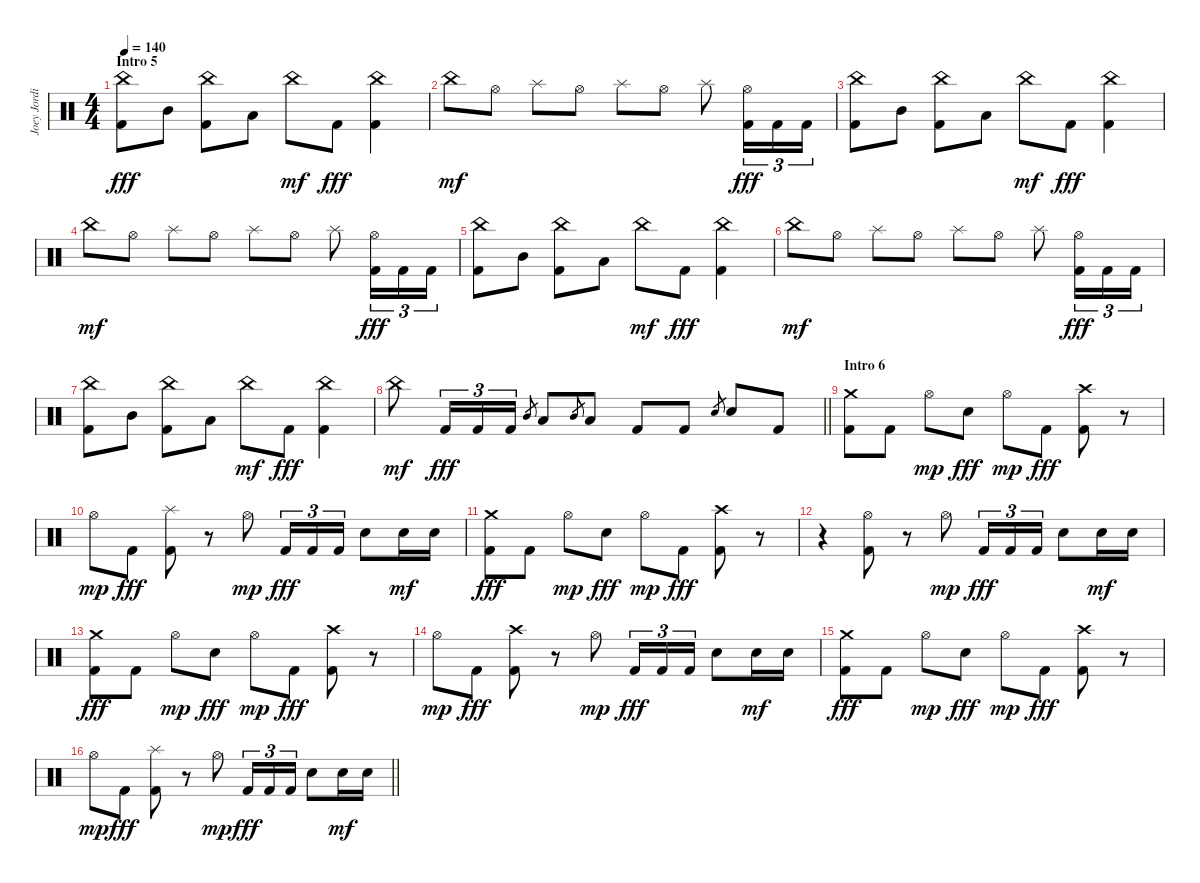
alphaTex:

\track ("Joey Jordison" "Joey Jordi") {instrument percussion}
\staff {score}
\articulation defaults
\ts (4 4)
\section ("" "Intro 5")
\tempo 140
\clef neutral
\ks c
("China (hit)" "Kick (hit) 2").8{dy fff} "Mid Tom (hit)".8 ("China (hit)" "Kick (hit) 2").8 "Low Tom (hit)".8 "China (hit)".8{dy mf} "Kick (hit) 2".8{dy fff} ("China (hit)" "Kick (hit) 2").4 |
"China (hit)".8{dy mf} "Hi-Hat (open)".8 "Splash (hit)".8 "Hi-Hat (open)".8 "Splash (hit)".8 "Hi-Hat (open)".8 "Splash (hit)".8 ("Hi-Hat (open)" "Kick (hit) 2").16{tu (3 2) dy fff} "Kick (hit) 2".16{tu (3 2)} "Kick (hit) 2".16{tu (3 2)} |
("China (hit)" "Kick (hit) 2").8 "Mid Tom (hit)".8 ("China (hit)" "Kick (hit) 2").8 "Low Tom (hit)".8 "China (hit)".8{dy mf} "Kick (hit) 2".8{dy fff} ("China (hit)" "Kick (hit) 2").4 |
"China (hit)".8{dy mf} "Hi-Hat (open)".8 "Splash (hit)".8 "Hi-Hat (open)".8 "Splash (hit)".8 "Hi-Hat (open)".8 "Splash (hit)".8 ("Hi-Hat (open)" "Kick (hit) 2").16{tu (3 2) dy fff} "Kick (hit) 2".16{tu (3 2)} "Kick (hit) 2".16{tu (3 2)} |
("China (hit)" "Kick (hit) 2").8 "Mid Tom (hit)".8 ("China (hit)" "Kick (hit) 2").8 "Low Tom (hit)".8 "China (hit)".8{dy mf} "Kick (hit) 2".8{dy fff} ("China (hit)" "Kick (hit) 2").4 |
"China (hit)".8{dy mf} "Hi-Hat (open)".8 "Splash (hit)".8 "Hi-Hat (open)".8 "Splash (hit)".8 "Hi-Hat (open)".8 "Splash (hit)".8 ("Hi-Hat (open)" "Kick (hit) 2").16{tu (3 2) dy fff} "Kick (hit) 2".16{tu (3 2)} "Kick (hit) 2".16{tu (3 2)} |
("China (hit)" "Kick (hit) 2").8 "Mid Tom (hit)".8 ("China (hit)" "Kick (hit) 2").8 "Low Tom (hit)".8 "China (hit)".8{dy mf} "Kick (hit) 2".8{dy fff} ("China (hit)" "Kick (hit) 2").4 |
\barLineRight lightlight "China (hit)".8{dy mf} "Kick (hit) 2".16{tu (3 2) dy fff} "Kick (hit) 2".16{tu (3 2)} "Kick (hit) 2".16{tu (3 2)} "Mid Tom (hit)".8{gr} "Low Tom (hit)".8 "Mid Tom (hit)".8{gr} "Low Tom (hit)".8 "Kick (hit) 2".8 "Kick (hit) 2".8 "Electric Snare (hit)".8{gr} "Electric Snare (hit)".8 "Kick (hit) 2".8
|
\section ("" "Intro 6")
("Crash medium (hit)" "Kick (hit) 2").8 "Kick (hit) 2".8 "Hi-Hat (open)".8{dy mp} "Electric Snare (hit)".8{dy fff} "Hi-Hat (open)".8{dy mp} "Kick (hit) 2".8{dy fff} ("Crash high (hit)" "Kick (hit) 2").8 r.8 |
"Hi-Hat (open)".8{dy mp} "Kick (hit) 2".8{dy fff} ("Splash (hit)" "Kick (hit) 2").8 r.8 "Hi-Hat (open)".8{dy mp} "Kick (hit) 2".16{tu (3 2) dy fff} "Kick (hit) 2".16{tu (3 2)} "Kick (hit) 2".16{tu (3 2)} "Electric Snare (hit)".8 "Electric Snare (hit)".16{dy mf} "Electric Snare (hit)".16 |
("Crash medium (hit)" "Kick (hit) 2").8{dy fff} "Kick (hit) 2".8 "Hi-Hat (open)".8{dy mp} "Electric Snare (hit)".8{dy fff} "Hi-Hat (open)".8{dy mp} "Kick (hit) 2".8{dy fff} ("Crash high (hit)" "Kick (hit) 2").8 r.8 |
r.4 ("Hi-Hat (open)" "Kick (hit) 2").8 r.8 "Hi-Hat (open)".8{dy mp} "Kick (hit) 2".16{tu (3 2) dy fff} "Kick (hit) 2".16{tu (3 2)} "Kick (hit) 2".16{tu (3 2)} "Electric Snare (hit)".8 "Electric Snare (hit)".16{dy mf} "Electric Snare (hit)".16 |
("Crash medium (hit)" "Kick (hit) 2").8{dy fff} "Kick (hit) 2".8 "Hi-Hat (open)".8{dy mp} "Electric Snare (hit)".8{dy fff} "Hi-Hat (open)".8{dy mp} "Kick (hit) 2".8{dy fff} ("Crash high (hit)" "Kick (hit) 2").8 r.8 |
"Hi-Hat (open)".8{dy mp} "Kick (hit) 2".8{dy fff} ("Crash high (hit)" "Kick (hit) 2").8 r.8 "Hi-Hat (open)".8{dy mp} "Kick (hit) 2".16{tu (3 2) dy fff} "Kick (hit) 2".16{tu (3 2)} "Kick (hit) 2".16{tu (3 2)} "Electric Snare (hit)".8 "Electric Snare (hit)".16{dy mf} "Electric Snare (hit)".16 |
("Crash medium (hit)" "Kick (hit) 2").8{dy fff} "Kick (hit) 2".8 "Hi-Hat (open)".8{dy mp} "Electric Snare (hit)".8{dy fff} "Hi-Hat (open)".8{dy mp} "Kick (hit) 2".8{dy fff} ("Crash high (hit)" "Kick (hit) 2").8 r.8 |
\barLineRight lightlight "Hi-Hat (open)".8{dy mp} "Kick (hit) 2".8{dy fff}
("Splash (hit)" "Kick (hit) 2").8 r.8 "Hi-Hat (open)".8{dy mp} "Kick (hit) 2".16{tu (3 2) dy fff} "Kick (hit) 2".16{tu (3 2)} "Kick (hit) 2".16{tu (3 2)} "Electric Snare (hit)".8 "Electric Snare (hit)".16{dy mf} "Electric Snare (hit)".16
